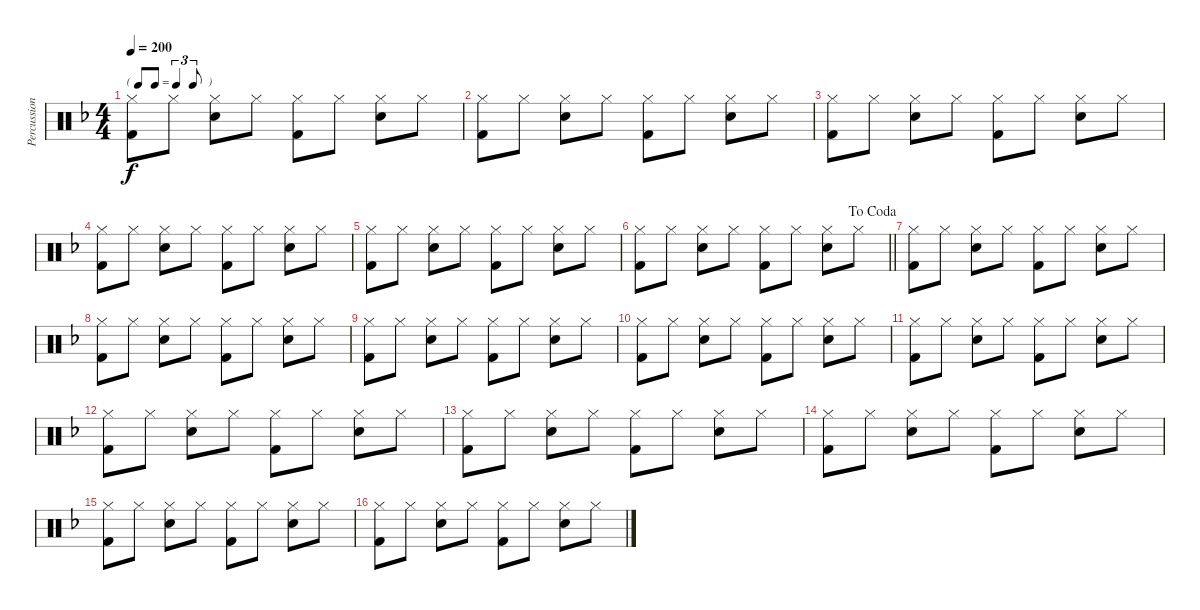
\track ("Percussion" "Percussion") {instrument percussion}
\staff {score}
\articulation defaults
\ts (4 4)
\tf triplet8th
\tempo 200
\clef neutral
\ks f
("Hi-Hat (closed)" "Kick (hit) 2").8{dy f} "Hi-Hat (closed)".8 ("Hi-Hat (closed)" "Electric Snare (hit)").8 "Hi-Hat (closed)".8 ("Hi-Hat (closed)" "Kick (hit) 2").8 "Hi-Hat (closed)".8 ("Hi-Hat (closed)" "Electric Snare (hit)").8 "Hi-Hat (closed)".8 |
("Hi-Hat (closed)" "Kick (hit) 2").8 "Hi-Hat (closed)".8 ("Hi-Hat (closed)" "Electric Snare (hit)").8 "Hi-Hat (closed)".8 ("Hi-Hat (closed)" "Kick (hit) 2").8 "Hi-Hat (closed)".8 ("Hi-Hat (closed)" "Electric Snare (hit)").8 "Hi-Hat (closed)".8 |
("Hi-Hat (closed)" "Kick (hit) 2").8 "Hi-Hat (closed)".8 ("Hi-Hat (closed)" "Electric Snare (hit)").8 "Hi-Hat (closed)".8 ("Hi-Hat (closed)" "Kick (hit) 2").8 "Hi-Hat (closed)".8 ("Hi-Hat (closed)" "Electric Snare (hit)").8 "Hi-Hat (closed)".8 |
("Hi-Hat (closed)" "Kick (hit) 2").8 "Hi-Hat (closed)".8 ("Hi-Hat (closed)" "Electric Snare (hit)").8 "Hi-Hat (closed)".8 ("Hi-Hat (closed)" "Kick (hit) 2").8 "Hi-Hat (closed)".8 ("Hi-Hat (closed)" "Electric Snare (hit)").8 "Hi-Hat (closed)".8 |
("Hi-Hat (closed)" "Kick (hit) 2").8 "Hi-Hat (closed)".8 ("Hi-Hat (closed)" "Electric Snare (hit)").8 "Hi-Hat (closed)".8 ("Hi-Hat (closed)" "Kick (hit) 2").8 "Hi-Hat (closed)".8 ("Hi-Hat (closed)" "Electric Snare (hit)").8 "Hi-Hat (closed)".8 |
\jump dacoda
\barLineRight lightlight
("Hi-Hat (closed)" "Kick (hit) 2").8 "Hi-Hat (closed)".8 ("Hi-Hat (closed)" "Electric Snare (hit)").8 "Hi-Hat (closed)".8 ("Hi-Hat (closed)" "Kick (hit) 2").8 "Hi-Hat (closed)".8 ("Hi-Hat (closed)" "Electric Snare (hit)").8 "Hi-Hat (closed)".8 |
("Hi-Hat (closed)" "Kick (hit) 2").8 "Hi-Hat (closed)".8 ("Hi-Hat (closed)" "Electric Snare (hit)").8 "Hi-Hat (closed)".8 ("Hi-Hat (closed)" "Kick (hit) 2").8 "Hi-Hat (closed)".8 ("Hi-Hat (closed)" "Electric Snare (hit)").8 "Hi-Hat (closed)".8 |
("Hi-Hat (closed)" "Kick (hit) 2").8 "Hi-Hat (closed)".8 ("Hi-Hat (closed)" "Electric Snare (hit)").8 "Hi-Hat (closed)".8 ("Hi-Hat (closed)" "Kick (hit) 2").8 "Hi-Hat (closed)".8 ("Hi-Hat (closed)" "Electric Snare (hit)").8 "Hi-Hat (closed)".8 |
("Hi-Hat (closed)" "Kick (hit) 2").8 "Hi-Hat (closed)".8 ("Hi-Hat (closed)" "Electric Snare (hit)").8 "Hi-Hat (closed)".8 ("Hi-Hat (closed)" "Kick (hit) 2").8 "Hi-Hat (closed)".8 ("Hi-Hat (closed)" "Electric Snare (hit)").8 "Hi-Hat (closed)".8 |
("Hi-Hat (closed)" "Kick (hit) 2").8 "Hi-Hat (closed)".8 ("Hi-Hat (closed)" "Electric Snare (hit)").8 "Hi-Hat (closed)".8 ("Hi-Hat (closed)" "Kick (hit) 2").8 "Hi-Hat (closed)".8 ("Hi-Hat (closed)" "Electric Snare (hit)").8 "Hi-Hat (closed)".8 |
("Hi-Hat (closed)" "Kick (hit) 2").8 "Hi-Hat (closed)".8 ("Hi-Hat (closed)" "Electric Snare (hit)").8 "Hi-Hat (closed)".8 ("Hi-Hat (closed)" "Kick (hit) 2").8 "Hi-Hat (closed)".8 ("Hi-Hat (closed)" "Electric Snare (hit)").8 "Hi-Hat (closed)".8 |
("Hi-Hat (closed)" "Kick (hit) 2").8 "Hi-Hat (closed)".8 ("Hi-Hat (closed)" "Electric Snare (hit)").8 "Hi-Hat (closed)".8 ("Hi-Hat (closed)" "Kick (hit) 2").8 "Hi-Hat (closed)".8 ("Hi-Hat (closed)" "Electric Snare (hit)").8 "Hi-Hat (closed)".8 |
("Hi-Hat (closed)" "Kick (hit) 2").8 "Hi-Hat (closed)".8 ("Hi-Hat (closed)" "Electric Snare (hit)").8 "Hi-Hat (closed)".8 ("Hi-Hat (closed)" "Kick (hit) 2").8 "Hi-Hat (closed)".8 ("Hi-Hat (closed)" "Electric Snare (hit)").8 "Hi-Hat (closed)".8 |
("Hi-Hat (closed)" "Kick (hit) 2").8 "Hi-Hat (closed)".8 ("Hi-Hat (closed)" "Electric Snare (hit)").8 "Hi-Hat (closed)".8 ("Hi-Hat (closed)" "Kick (hit) 2").8 "Hi-Hat (closed)".8 ("Hi-Hat (closed)" "Electric Snare (hit)").8 "Hi-Hat (closed)".8 |
("Hi-Hat (closed)" "Kick (hit) 2").8 "Hi-Hat (closed)".8 ("Hi-Hat (closed)" "Electric Snare (hit)").8 "Hi-Hat (closed)".8 ("Hi-Hat (closed)" "Kick (hit) 2").8 "Hi-Hat (closed)".8 ("Hi-Hat (closed)" "Electric Snare (hit)").8 "Hi-Hat (closed)".8 |
("Hi-Hat (closed)" "Kick (hit) 2").8 "Hi-Hat (closed)".8 ("Hi-Hat (closed)" "Electric Snare (hit)").8 "Hi-Hat (closed)".8 ("Hi-Hat (closed)" "Kick (hit) 2").8 "Hi-Hat (closed)".8 ("Hi-Hat (closed)" "Electric Snare (hit)").8 "Hi-Hat (closed)".8
